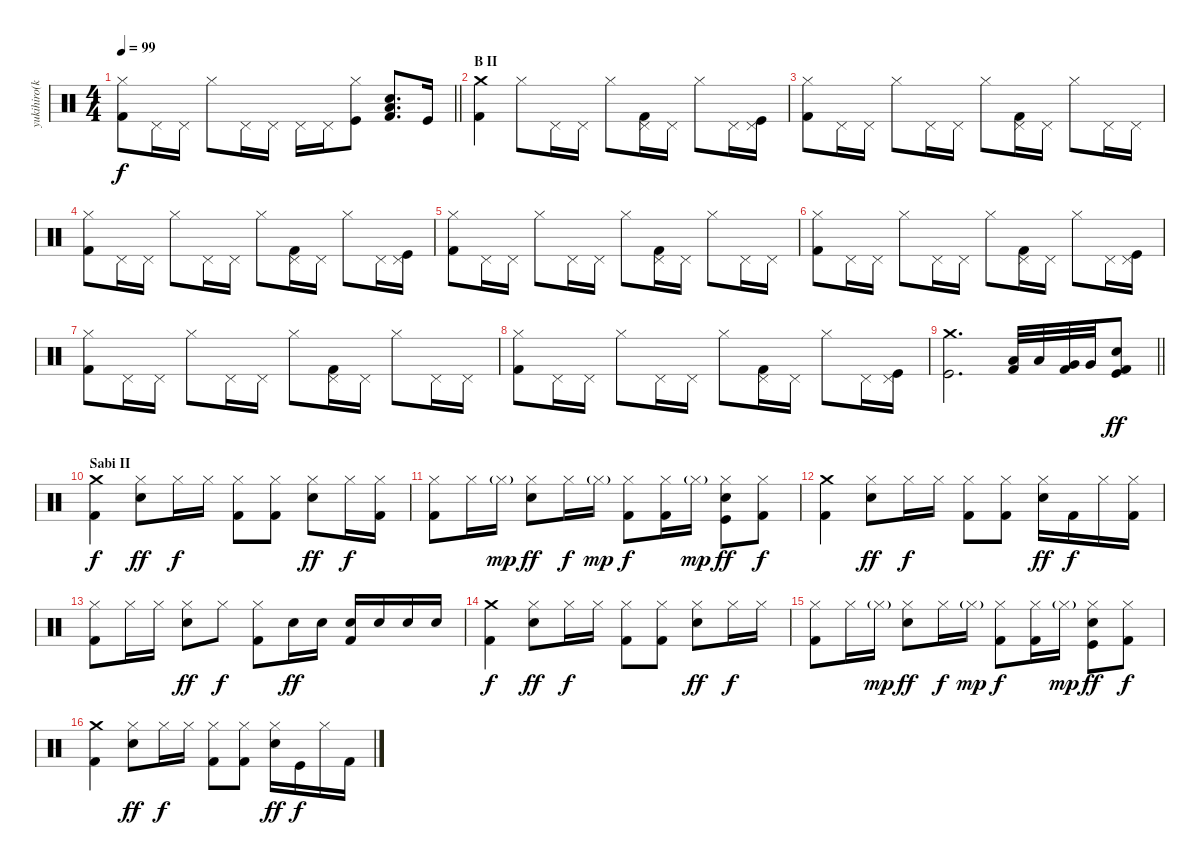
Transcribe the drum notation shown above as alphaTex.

\track ("yukihiro(kami)" "yukihiro(k") {instrument percussion}
\staff {score}
\articulation defaults
\ts (4 4)
\tempo 99
\clef neutral
\barLineRight lightlight
\ks c
("Hi-Hat (closed)" "Kick (hit) 2").8{dy f} "Pedal Hi-Hat (hit)".16 "Pedal Hi-Hat (hit)".16 "Hi-Hat (closed)".8 "Pedal Hi-Hat (hit)".16 "Pedal Hi-Hat (hit)".16 "Pedal Hi-Hat (hit)".16 "Pedal Hi-Hat (hit)".16 ("Hi-Hat (closed)" "Kick (hit)").8 ("Snare (hit) 2" "Low Tom (hit)" "Kick (hit) 2").8{d} "Kick (hit)".16 |
\section ("" "B II")
("Crash medium (hit)" "Kick (hit) 2").4 "Hi-Hat (closed)".8 "Pedal Hi-Hat (hit)".16 "Pedal Hi-Hat (hit)".16 "Hi-Hat (closed)".8 ("Pedal Hi-Hat (hit)" "Kick (hit) 2").16 "Pedal Hi-Hat (hit)".16 "Hi-Hat (closed)".8 "Pedal Hi-Hat (hit)".16 ("Pedal Hi-Hat (hit)" "Kick (hit)").16 |
("Hi-Hat (closed)" "Kick (hit) 2").8 "Pedal Hi-Hat (hit)".16 "Pedal Hi-Hat (hit)".16 "Hi-Hat (closed)".8 "Pedal Hi-Hat (hit)".16 "Pedal Hi-Hat (hit)".16 "Hi-Hat (closed)".8 ("Pedal Hi-Hat (hit)" "Kick (hit) 2").16 "Pedal Hi-Hat (hit)".16 "Hi-Hat (closed)".8 "Pedal Hi-Hat (hit)".16 "Pedal Hi-Hat (hit)".16 |
("Hi-Hat (closed)" "Kick (hit) 2").8 "Pedal Hi-Hat (hit)".16 "Pedal Hi-Hat (hit)".16 "Hi-Hat (closed)".8 "Pedal Hi-Hat (hit)".16 "Pedal Hi-Hat (hit)".16 "Hi-Hat (closed)".8 ("Pedal Hi-Hat (hit)" "Kick (hit) 2").16 "Pedal Hi-Hat (hit)".16 "Hi-Hat (closed)".8 "Pedal Hi-Hat (hit)".16 ("Pedal Hi-Hat (hit)" "Kick (hit)").16 |
("Hi-Hat (closed)" "Kick (hit) 2").8 "Pedal Hi-Hat (hit)".16 "Pedal Hi-Hat (hit)".16 "Hi-Hat (closed)".8 "Pedal Hi-Hat (hit)".16 "Pedal Hi-Hat (hit)".16 "Hi-Hat (closed)".8 ("Pedal Hi-Hat (hit)" "Kick (hit) 2").16 "Pedal Hi-Hat (hit)".16 "Hi-Hat (closed)".8 "Pedal Hi-Hat (hit)".16 "Pedal Hi-Hat (hit)".16 |
("Hi-Hat (closed)" "Kick (hit) 2").8 "Pedal Hi-Hat (hit)".16 "Pedal Hi-Hat (hit)".16 "Hi-Hat (closed)".8 "Pedal Hi-Hat (hit)".16 "Pedal Hi-Hat (hit)".16 "Hi-Hat (closed)".8 ("Pedal Hi-Hat (hit)" "Kick (hit) 2").16 "Pedal Hi-Hat (hit)".16 "Hi-Hat (closed)".8 "Pedal Hi-Hat (hit)".16 ("Pedal Hi-Hat (hit)" "Kick (hit)").16 |
("Hi-Hat (closed)" "Kick (hit) 2").8 "Pedal Hi-Hat (hit)".16 "Pedal Hi-Hat (hit)".16 "Hi-Hat (closed)".8 "Pedal Hi-Hat (hit)".16 "Pedal Hi-Hat (hit)".16 "Hi-Hat (closed)".8 ("Pedal Hi-Hat (hit)" "Kick (hit) 2").16 "Pedal Hi-Hat (hit)".16 "Hi-Hat (closed)".8 "Pedal Hi-Hat (hit)".16 "Pedal Hi-Hat (hit)".16 |
("Hi-Hat (closed)" "Kick (hit) 2").8 "Pedal Hi-Hat (hit)".16 "Pedal Hi-Hat (hit)".16 "Hi-Hat (closed)".8 "Pedal Hi-Hat (hit)".16 "Pedal Hi-Hat (hit)".16 "Hi-Hat (closed)".8 ("Pedal Hi-Hat (hit)" "Kick (hit) 2").16 "Pedal Hi-Hat (hit)".16 "Hi-Hat (closed)".8 "Pedal Hi-Hat (hit)".16 ("Pedal Hi-Hat (hit)" "Kick (hit)").16 |
\barLineRight lightlight
("Crash medium (hit)" "Kick (hit)").2{d} ("Low Tom (hit)" "Kick (hit) 2").32 "Low Tom (hit)".32 ("Very Low Tom (hit)" "Kick (hit) 2").32 "Very Low Tom (hit)".32 ("Snare (hit) 2" "Kick (hit)" "Kick (hit) 2").8{dy ff} |
\section ("" "Sabi II")
("Crash medium (hit)" "Kick (hit) 2").4{dy f} ("Hi-Hat (closed)" "Snare (hit) 2").8{dy ff} "Hi-Hat (closed)".16{dy f} "Hi-Hat (closed)".16 ("Hi-Hat (closed)" "Kick (hit) 2").8 ("Hi-Hat (closed)" "Kick (hit) 2").8 ("Hi-Hat (closed)" "Snare (hit) 2").8{dy ff} "Hi-Hat (closed)".16{dy f} ("Hi-Hat (closed)" "Kick (hit) 2").16 |
("Hi-Hat (closed)" "Kick (hit) 2").8 "Hi-Hat (closed)".16 "Hi-Hat (closed)"{g}.16{dy mp} ("Hi-Hat (closed)" "Snare (hit) 2").8{dy ff} "Hi-Hat (closed)".16{dy f} "Hi-Hat (closed)"{g}.16{dy mp} ("Hi-Hat (closed)" "Kick (hit) 2").8{dy f} ("Hi-Hat (closed)" "Kick (hit) 2").16 "Hi-Hat (closed)"{g}.16{dy mp} ("Hi-Hat (closed)" "Snare (hit) 2" "Kick (hit)").8{dy ff} ("Hi-Hat (closed)" "Kick (hit) 2").8{dy f} |
("Crash medium (hit)" "Kick (hit) 2").4 ("Hi-Hat (closed)" "Snare (hit) 2").8{dy ff} "Hi-Hat (closed)".16{dy f} "Hi-Hat (closed)".16 ("Hi-Hat (closed)" "Kick (hit) 2").8 ("Hi-Hat (closed)" "Kick (hit) 2").8 ("Hi-Hat (closed)" "Snare (hit) 2").16{dy ff} "Kick (hit) 2".16{dy f} "Hi-Hat (closed)".16 ("Hi-Hat (closed)" "Kick (hit) 2").16 |
("Hi-Hat (closed)" "Kick (hit) 2").8 "Hi-Hat (closed)".16 "Hi-Hat (closed)".16 ("Hi-Hat (closed)" "Snare (hit) 2").8{dy ff} "Hi-Hat (closed)".8{dy f} ("Hi-Hat (closed)" "Kick (hit) 2").8 "Snare (hit) 2".16{dy ff} "Snare (hit) 2".16 ("Snare (hit) 2" "Kick (hit) 2").16 "Snare (hit) 2".16 "Snare (hit) 2".16 "Snare (hit) 2".16 |
("Crash medium (hit)" "Kick (hit) 2").4{dy f} ("Hi-Hat (closed)" "Snare (hit) 2").8{dy ff} "Hi-Hat (closed)".16{dy f} "Hi-Hat (closed)".16 ("Hi-Hat (closed)" "Kick (hit) 2").8 ("Hi-Hat (closed)" "Kick (hit) 2").8 ("Hi-Hat (closed)" "Snare (hit) 2").8{dy ff} "Hi-Hat (closed)".16{dy f} "Hi-Hat (closed)".16 |
("Hi-Hat (closed)" "Kick (hit) 2").8 "Hi-Hat (closed)".16 "Hi-Hat (closed)"{g}.16{dy mp} ("Hi-Hat (closed)" "Snare (hit) 2").8{dy ff} "Hi-Hat (closed)".16{dy f} "Hi-Hat (closed)"{g}.16{dy mp} ("Hi-Hat (closed)" "Kick (hit) 2").8{dy f} ("Hi-Hat (closed)" "Kick (hit) 2").16 "Hi-Hat (closed)"{g}.16{dy mp} ("Hi-Hat (closed)" "Snare (hit) 2" "Kick (hit)").8{dy ff} ("Hi-Hat (closed)" "Kick (hit) 2").8{dy f} |
("Crash medium (hit)" "Kick (hit) 2").4 ("Hi-Hat (closed)" "Snare (hit) 2").8{dy ff} "Hi-Hat (closed)".16{dy f} "Hi-Hat (closed)".16 ("Hi-Hat (closed)" "Kick (hit) 2").8 ("Hi-Hat (closed)" "Kick (hit) 2").8 ("Hi-Hat (closed)" "Snare (hit) 2").16{dy ff} "Kick (hit)".16{dy f} "Hi-Hat (closed)".16 "Kick (hit) 2".16
